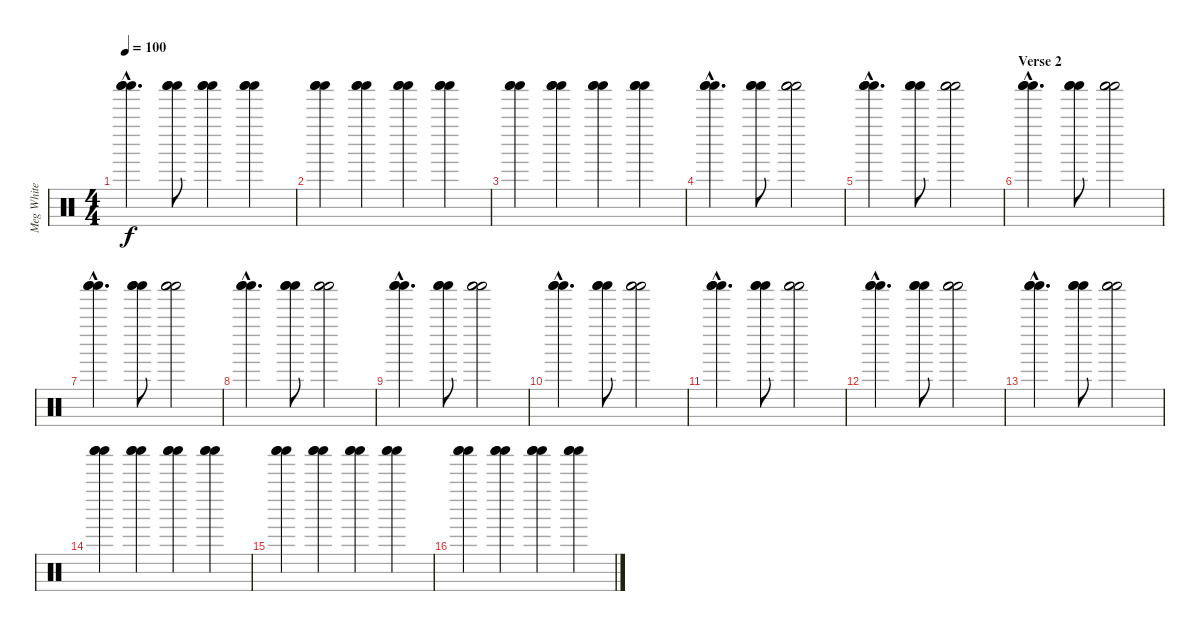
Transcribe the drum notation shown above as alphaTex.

\track ("Meg White" "Meg White") {instrument percussion}
\staff {score}
\articulation defaults
\ts (4 4)
\tempo 100
\clef neutral
\ks c
("Shaker (hit)"{hac} "Shaker (hit)"{hac} "Shaker (hit)"{hac}).4{d dy f} ("Shaker (hit)" "Shaker (hit)" "Shaker (hit)").8 ("Shaker (hit)" "Shaker (hit)" "Shaker (hit)").4 ("Shaker (hit)" "Shaker (hit)" "Shaker (hit)").4 |
("Shaker (hit)" "Shaker (hit)" "Shaker (hit)").4 ("Shaker (hit)" "Shaker (hit)" "Shaker (hit)").4 ("Shaker (hit)" "Shaker (hit)" "Shaker (hit)").4 ("Shaker (hit)" "Shaker (hit)" "Shaker (hit)").4 |
("Shaker (hit)" "Shaker (hit)" "Shaker (hit)").4 ("Shaker (hit)" "Shaker (hit)" "Shaker (hit)").4 ("Shaker (hit)" "Shaker (hit)" "Shaker (hit)").4 ("Shaker (hit)" "Shaker (hit)" "Shaker (hit)").4 |
("Shaker (hit)"{hac} "Shaker (hit)"{hac} "Shaker (hit)"{hac}).4{d} ("Shaker (hit)" "Shaker (hit)" "Shaker (hit)").8 ("Shaker (hit)" "Shaker (hit)" "Shaker (hit)").2 |
("Shaker (hit)"{hac} "Shaker (hit)"{hac} "Shaker (hit)"{hac}).4{d} ("Shaker (hit)" "Shaker (hit)" "Shaker (hit)").8 ("Shaker (hit)" "Shaker (hit)" "Shaker (hit)").2 |
\section ("" "Verse 2")
("Shaker (hit)"{hac} "Shaker (hit)"{hac} "Shaker (hit)"{hac}).4{d} ("Shaker (hit)" "Shaker (hit)" "Shaker (hit)").8 ("Shaker (hit)" "Shaker (hit)" "Shaker (hit)").2 |
("Shaker (hit)"{hac} "Shaker (hit)"{hac} "Shaker (hit)"{hac}).4{d} ("Shaker (hit)" "Shaker (hit)" "Shaker (hit)").8 ("Shaker (hit)" "Shaker (hit)" "Shaker (hit)").2 |
("Shaker (hit)"{hac} "Shaker (hit)"{hac} "Shaker (hit)"{hac}).4{d} ("Shaker (hit)" "Shaker (hit)" "Shaker (hit)").8 ("Shaker (hit)" "Shaker (hit)" "Shaker (hit)").2 |
("Shaker (hit)"{hac} "Shaker (hit)"{hac} "Shaker (hit)"{hac}).4{d} ("Shaker (hit)" "Shaker (hit)" "Shaker (hit)").8 ("Shaker (hit)" "Shaker (hit)" "Shaker (hit)").2 |
("Shaker (hit)"{hac} "Shaker (hit)"{hac} "Shaker (hit)"{hac}).4{d} ("Shaker (hit)" "Shaker (hit)" "Shaker (hit)").8 ("Shaker (hit)" "Shaker (hit)" "Shaker (hit)").2 |
("Shaker (hit)"{hac} "Shaker (hit)"{hac} "Shaker (hit)"{hac}).4{d} ("Shaker (hit)" "Shaker (hit)" "Shaker (hit)").8 ("Shaker (hit)" "Shaker (hit)" "Shaker (hit)").2 |
("Shaker (hit)"{hac} "Shaker (hit)"{hac} "Shaker (hit)"{hac}).4{d} ("Shaker (hit)" "Shaker (hit)" "Shaker (hit)").8 ("Shaker (hit)" "Shaker (hit)" "Shaker (hit)").2 |
("Shaker (hit)"{hac} "Shaker (hit)"{hac} "Shaker (hit)"{hac}).4{d} ("Shaker (hit)" "Shaker (hit)" "Shaker (hit)").8 ("Shaker (hit)" "Shaker (hit)" "Shaker (hit)").2 |
("Shaker (hit)" "Shaker (hit)" "Shaker (hit)").4 ("Shaker (hit)" "Shaker (hit)" "Shaker (hit)").4 ("Shaker (hit)" "Shaker (hit)" "Shaker (hit)").4 ("Shaker (hit)" "Shaker (hit)" "Shaker (hit)").4 |
("Shaker (hit)" "Shaker (hit)" "Shaker (hit)").4 ("Shaker (hit)" "Shaker (hit)" "Shaker (hit)").4 ("Shaker (hit)" "Shaker (hit)" "Shaker (hit)").4 ("Shaker (hit)" "Shaker (hit)" "Shaker (hit)").4 |
("Shaker (hit)" "Shaker (hit)" "Shaker (hit)").4 ("Shaker (hit)" "Shaker (hit)" "Shaker (hit)").4 ("Shaker (hit)" "Shaker (hit)" "Shaker (hit)").4 ("Shaker (hit)" "Shaker (hit)" "Shaker (hit)").4
